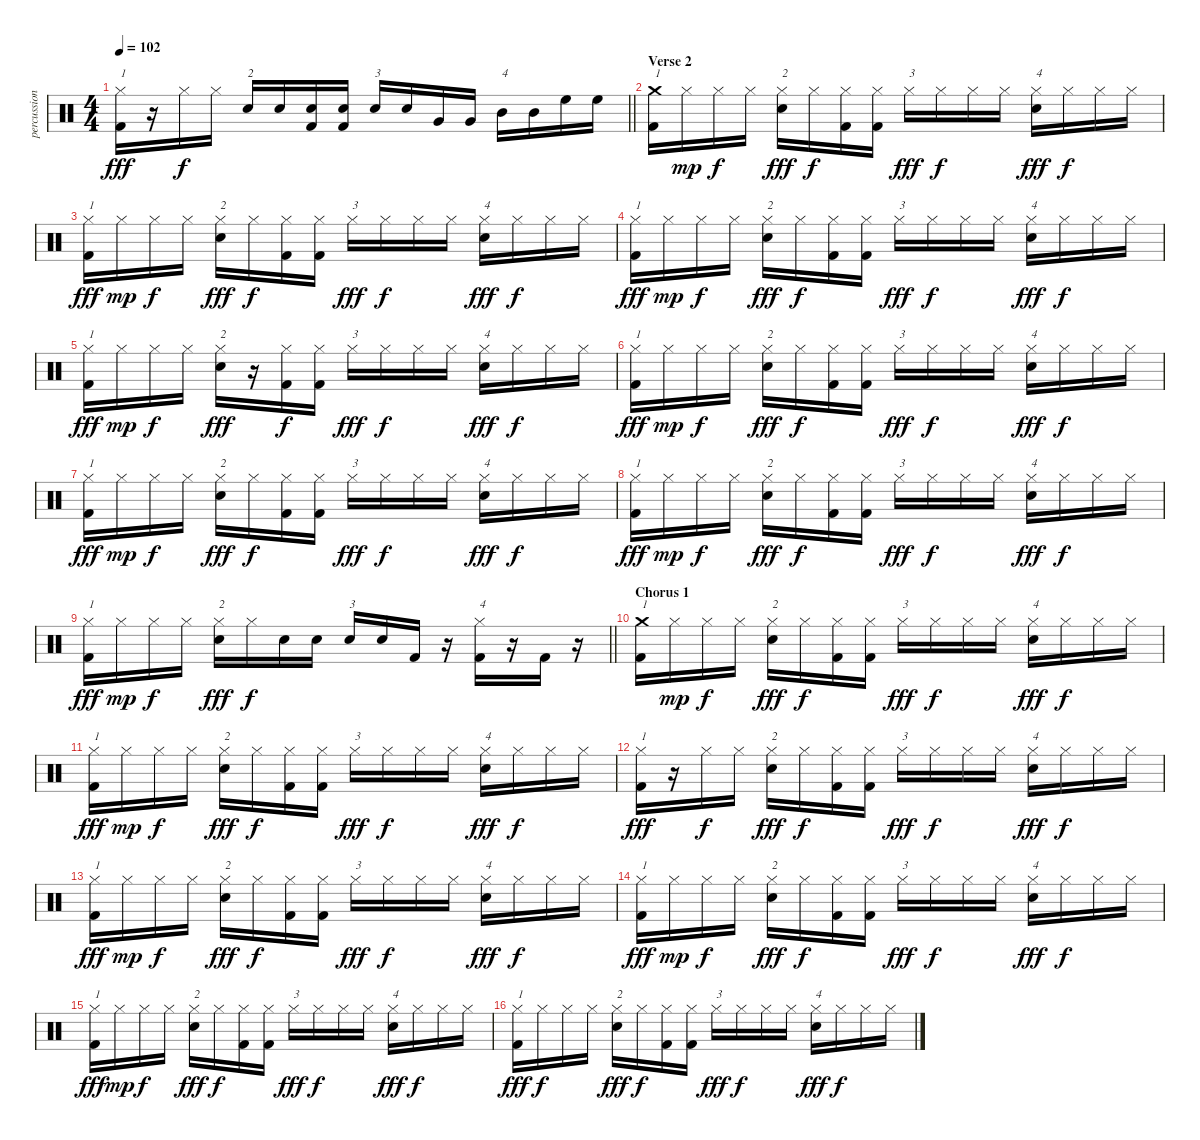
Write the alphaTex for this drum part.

\track ("percussion" "percussion") {instrument percussion}
\staff {score}
\articulation defaults
\ts (4 4)
\tempo 102
\clef neutral
\barLineRight lightlight
\ks c
("Hi-Hat (closed)" "Kick (hit) 2").16{txt "1" dy fff} r.16 "Hi-Hat (closed)".16{dy f} "Hi-Hat (closed)".16 "Snare (hit) 2".16{txt "2"} "Snare (hit) 2".16 ("Snare (hit) 2" "Kick (hit) 2").16 ("Snare (hit) 2" "Kick (hit) 2").16 "Snare (hit) 2".16{txt "3"} "Snare (hit) 2".16 "Very Low Tom (hit)".16 "Very Low Tom (hit)".16 "Mid Tom (hit)".16{txt "4"} "Mid Tom (hit)".16 "High Floor Tom (hit)".16 "High Floor Tom (hit)".16 |
\section ("" "Verse 2")
("Crash medium (hit)" "Kick (hit) 2").16{txt "1"} "Hi-Hat (closed)".16{dy mp} "Hi-Hat (closed)".16{dy f} "Hi-Hat (closed)".16 ("Snare (hit) 2" "Hi-Hat (closed)").16{txt "2" dy fff} "Hi-Hat (closed)".16{dy f} ("Hi-Hat (closed)" "Kick (hit) 2").16 ("Hi-Hat (closed)" "Kick (hit) 2").16 "Hi-Hat (closed)".16{txt "3" dy fff} "Hi-Hat (closed)".16{dy f} "Hi-Hat (closed)".16 "Hi-Hat (closed)".16 ("Snare (hit) 2" "Hi-Hat (closed)").16{txt "4" dy fff} "Hi-Hat (closed)".16{dy f} "Hi-Hat (closed)".16 "Hi-Hat (closed)".16 |
("Hi-Hat (closed)" "Kick (hit) 2").16{txt "1" dy fff} "Hi-Hat (closed)".16{dy mp} "Hi-Hat (closed)".16{dy f} "Hi-Hat (closed)".16 ("Snare (hit) 2" "Hi-Hat (closed)").16{txt "2" dy fff} "Hi-Hat (closed)".16{dy f} ("Hi-Hat (closed)" "Kick (hit) 2").16 ("Hi-Hat (closed)" "Kick (hit) 2").16 "Hi-Hat (closed)".16{txt "3" dy fff} "Hi-Hat (closed)".16{dy f} "Hi-Hat (closed)".16 "Hi-Hat (closed)".16 ("Snare (hit) 2" "Hi-Hat (closed)").16{txt "4" dy fff} "Hi-Hat (closed)".16{dy f} "Hi-Hat (closed)".16 "Hi-Hat (closed)".16 |
("Hi-Hat (closed)" "Kick (hit) 2").16{txt "1" dy fff} "Hi-Hat (closed)".16{dy mp} "Hi-Hat (closed)".16{dy f} "Hi-Hat (closed)".16 ("Snare (hit) 2" "Hi-Hat (closed)").16{txt "2" dy fff} "Hi-Hat (closed)".16{dy f} ("Hi-Hat (closed)" "Kick (hit) 2").16 ("Hi-Hat (closed)" "Kick (hit) 2").16 "Hi-Hat (closed)".16{txt "3" dy fff} "Hi-Hat (closed)".16{dy f} "Hi-Hat (closed)".16 "Hi-Hat (closed)".16 ("Snare (hit) 2" "Hi-Hat (closed)").16{txt "4" dy fff} "Hi-Hat (closed)".16{dy f} "Hi-Hat (closed)".16 "Hi-Hat (closed)".16 |
("Hi-Hat (closed)" "Kick (hit) 2").16{txt "1" dy fff} "Hi-Hat (closed)".16{dy mp} "Hi-Hat (closed)".16{dy f} "Hi-Hat (closed)".16 ("Snare (hit) 2" "Hi-Hat (closed)").16{txt "2" dy fff} r.16 ("Hi-Hat (closed)" "Kick (hit) 2").16{dy f} ("Hi-Hat (closed)" "Kick (hit) 2").16 "Hi-Hat (closed)".16{txt "3" dy fff} "Hi-Hat (closed)".16{dy f} "Hi-Hat (closed)".16 "Hi-Hat (closed)".16 ("Snare (hit) 2" "Hi-Hat (closed)").16{txt "4" dy fff} "Hi-Hat (closed)".16{dy f} "Hi-Hat (closed)".16 "Hi-Hat (closed)".16 |
("Hi-Hat (closed)" "Kick (hit) 2").16{txt "1" dy fff} "Hi-Hat (closed)".16{dy mp} "Hi-Hat (closed)".16{dy f} "Hi-Hat (closed)".16 ("Snare (hit) 2" "Hi-Hat (closed)").16{txt "2" dy fff} "Hi-Hat (closed)".16{dy f} ("Hi-Hat (closed)" "Kick (hit) 2").16 ("Hi-Hat (closed)" "Kick (hit) 2").16 "Hi-Hat (closed)".16{txt "3" dy fff} "Hi-Hat (closed)".16{dy f} "Hi-Hat (closed)".16 "Hi-Hat (closed)".16 ("Snare (hit) 2" "Hi-Hat (closed)").16{txt "4" dy fff} "Hi-Hat (closed)".16{dy f} "Hi-Hat (closed)".16 "Hi-Hat (closed)".16 |
("Hi-Hat (closed)" "Kick (hit) 2").16{txt "1" dy fff} "Hi-Hat (closed)".16{dy mp} "Hi-Hat (closed)".16{dy f} "Hi-Hat (closed)".16 ("Snare (hit) 2" "Hi-Hat (closed)").16{txt "2" dy fff} "Hi-Hat (closed)".16{dy f} ("Hi-Hat (closed)" "Kick (hit) 2").16 ("Hi-Hat (closed)" "Kick (hit) 2").16 "Hi-Hat (closed)".16{txt "3" dy fff} "Hi-Hat (closed)".16{dy f} "Hi-Hat (closed)".16 "Hi-Hat (closed)".16 ("Snare (hit) 2" "Hi-Hat (closed)").16{txt "4" dy fff} "Hi-Hat (closed)".16{dy f} "Hi-Hat (closed)".16 "Hi-Hat (closed)".16 |
("Hi-Hat (closed)" "Kick (hit) 2").16{txt "1" dy fff} "Hi-Hat (closed)".16{dy mp} "Hi-Hat (closed)".16{dy f} "Hi-Hat (closed)".16 ("Snare (hit) 2" "Hi-Hat (closed)").16{txt "2" dy fff} "Hi-Hat (closed)".16{dy f} ("Hi-Hat (closed)" "Kick (hit) 2").16 ("Hi-Hat (closed)" "Kick (hit) 2").16 "Hi-Hat (closed)".16{txt "3" dy fff} "Hi-Hat (closed)".16{dy f} "Hi-Hat (closed)".16 "Hi-Hat (closed)".16 ("Snare (hit) 2" "Hi-Hat (closed)").16{txt "4" dy fff} "Hi-Hat (closed)".16{dy f} "Hi-Hat (closed)".16 "Hi-Hat (closed)".16 |
\barLineRight lightlight
("Hi-Hat (closed)" "Kick (hit) 2").16{txt "1" dy fff} "Hi-Hat (closed)".16{dy mp} "Hi-Hat (closed)".16{dy f} "Hi-Hat (closed)".16 ("Snare (hit) 2" "Hi-Hat (closed)").16{txt "2" dy fff} "Hi-Hat (closed)".16{dy f} "Snare (hit) 2".16 "Snare (hit) 2".16 "Snare (hit) 2".16{txt "3"} "Snare (hit) 2".16 "Kick (hit) 2".16 r.16 ("Hi-Hat (closed)" "Kick (hit) 2").16{txt "4"} r.16 "Kick (hit) 2".16 r.16 |
\section ("" "Chorus 1")
("Crash medium (hit)" "Kick (hit) 2").16{txt "1"} "Hi-Hat (closed)".16{dy mp} "Hi-Hat (closed)".16{dy f} "Hi-Hat (closed)".16 ("Snare (hit) 2" "Hi-Hat (closed)").16{txt "2" dy fff} "Hi-Hat (closed)".16{dy f} ("Hi-Hat (closed)" "Kick (hit) 2").16 ("Hi-Hat (closed)" "Kick (hit) 2").16 "Hi-Hat (closed)".16{txt "3" dy fff} "Hi-Hat (closed)".16{dy f} "Hi-Hat (closed)".16 "Hi-Hat (closed)".16 ("Snare (hit) 2" "Hi-Hat (closed)").16{txt "4" dy fff} "Hi-Hat (closed)".16{dy f} "Hi-Hat (closed)".16 "Hi-Hat (closed)".16 |
("Hi-Hat (closed)" "Kick (hit) 2").16{txt "1" dy fff} "Hi-Hat (closed)".16{dy mp} "Hi-Hat (closed)".16{dy f} "Hi-Hat (closed)".16 ("Snare (hit) 2" "Hi-Hat (closed)").16{txt "2" dy fff} "Hi-Hat (closed)".16{dy f} ("Hi-Hat (closed)" "Kick (hit) 2").16 ("Hi-Hat (closed)" "Kick (hit) 2").16 "Hi-Hat (closed)".16{txt "3" dy fff} "Hi-Hat (closed)".16{dy f} "Hi-Hat (closed)".16 "Hi-Hat (closed)".16 ("Snare (hit) 2" "Hi-Hat (closed)").16{txt "4" dy fff} "Hi-Hat (closed)".16{dy f} "Hi-Hat (closed)".16 "Hi-Hat (closed)".16 |
("Hi-Hat (closed)" "Kick (hit) 2").16{txt "1" dy fff} r.16 "Hi-Hat (closed)".16{dy f} "Hi-Hat (closed)".16 ("Snare (hit) 2" "Hi-Hat (closed)").16{txt "2" dy fff} "Hi-Hat (closed)".16{dy f} ("Hi-Hat (closed)" "Kick (hit) 2").16 ("Hi-Hat (closed)" "Kick (hit) 2").16 "Hi-Hat (closed)".16{txt "3" dy fff} "Hi-Hat (closed)".16{dy f} "Hi-Hat (closed)".16 "Hi-Hat (closed)".16 ("Snare (hit) 2" "Hi-Hat (closed)").16{txt "4" dy fff} "Hi-Hat (closed)".16{dy f} "Hi-Hat (closed)".16 "Hi-Hat (closed)".16 |
("Hi-Hat (closed)" "Kick (hit) 2").16{txt "1" dy fff} "Hi-Hat (closed)".16{dy mp} "Hi-Hat (closed)".16{dy f} "Hi-Hat (closed)".16 ("Snare (hit) 2" "Hi-Hat (closed)").16{txt "2" dy fff} "Hi-Hat (closed)".16{dy f} ("Hi-Hat (closed)" "Kick (hit) 2").16 ("Hi-Hat (closed)" "Kick (hit) 2").16 "Hi-Hat (closed)".16{txt "3" dy fff} "Hi-Hat (closed)".16{dy f} "Hi-Hat (closed)".16 "Hi-Hat (closed)".16 ("Snare (hit) 2" "Hi-Hat (closed)").16{txt "4" dy fff} "Hi-Hat (closed)".16{dy f} "Hi-Hat (closed)".16 "Hi-Hat (closed)".16 |
("Hi-Hat (closed)" "Kick (hit) 2").16{txt "1" dy fff} "Hi-Hat (closed)".16{dy mp} "Hi-Hat (closed)".16{dy f} "Hi-Hat (closed)".16 ("Snare (hit) 2" "Hi-Hat (closed)").16{txt "2" dy fff} "Hi-Hat (closed)".16{dy f} ("Hi-Hat (closed)" "Kick (hit) 2").16 ("Hi-Hat (closed)" "Kick (hit) 2").16 "Hi-Hat (closed)".16{txt "3" dy fff} "Hi-Hat (closed)".16{dy f} "Hi-Hat (closed)".16 "Hi-Hat (closed)".16 ("Snare (hit) 2" "Hi-Hat (closed)").16{txt "4" dy fff} "Hi-Hat (closed)".16{dy f} "Hi-Hat (closed)".16 "Hi-Hat (closed)".16 |
("Hi-Hat (closed)" "Kick (hit) 2").16{txt "1" dy fff} "Hi-Hat (closed)".16{dy mp} "Hi-Hat (closed)".16{dy f} "Hi-Hat (closed)".16 ("Snare (hit) 2" "Hi-Hat (closed)").16{txt "2" dy fff} "Hi-Hat (closed)".16{dy f} ("Hi-Hat (closed)" "Kick (hit) 2").16 ("Hi-Hat (closed)" "Kick (hit) 2").16 "Hi-Hat (closed)".16{txt "3" dy fff} "Hi-Hat (closed)".16{dy f} "Hi-Hat (closed)".16 "Hi-Hat (closed)".16 ("Snare (hit) 2" "Hi-Hat (closed)").16{txt "4" dy fff} "Hi-Hat (closed)".16{dy f} "Hi-Hat (closed)".16 "Hi-Hat (closed)".16 |
("Hi-Hat (closed)" "Kick (hit) 2").16{txt "1" dy fff} "Hi-Hat (closed)".16{dy f} "Hi-Hat (closed)".16 "Hi-Hat (closed)".16 ("Snare (hit) 2" "Hi-Hat (closed)").16{txt "2" dy fff} "Hi-Hat (closed)".16{dy f} ("Hi-Hat (closed)" "Kick (hit) 2").16 ("Hi-Hat (closed)" "Kick (hit) 2").16 "Hi-Hat (closed)".16{txt "3" dy fff} "Hi-Hat (closed)".16{dy f} "Hi-Hat (closed)".16 "Hi-Hat (closed)".16 ("Snare (hit) 2" "Hi-Hat (closed)").16{txt "4" dy fff} "Hi-Hat (closed)".16{dy f} "Hi-Hat (closed)".16 "Hi-Hat (closed)".16
